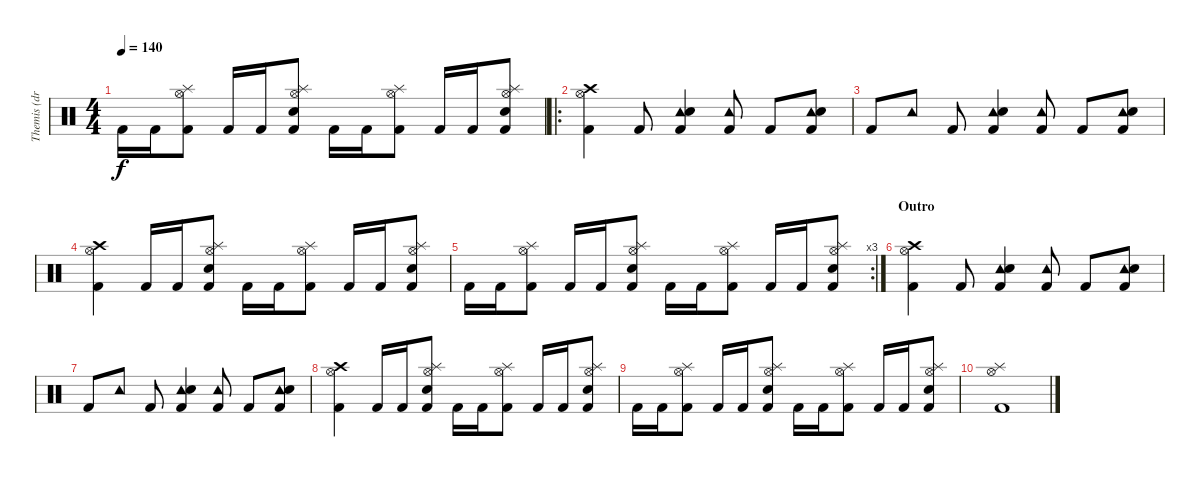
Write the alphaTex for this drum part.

\track ("Themis (drums)" "Themis (dr") {instrument percussion}
\staff {score}
\articulation defaults
\ts (4 4)
\tempo 140
\clef neutral
\ks c "Kick (hit) 2".16{dy f} "Kick (hit) 2".16
("Splash (hit)" "Hi-Hat (open)" "Kick (hit) 2").8 "Kick (hit) 2".16 "Kick (hit) 2".16 ("Splash (hit)" "Hi-Hat (open)" "Electric Snare (hit)" "Kick (hit) 2").8 "Kick (hit) 2".16 "Kick (hit) 2".16 ("Splash (hit)" "Hi-Hat (open)" "Kick (hit) 2").8 "Kick (hit) 2".16 "Kick (hit) 2".16 ("Splash (hit)" "Hi-Hat (open)" "Electric Snare (hit)" "Kick (hit) 2").8 |
\ro
("Crash high (hit)" "Hi-Hat (open)" "Kick (hit) 2").4 "Kick (hit) 2".8 ("Tambourine (hit)" "Electric Snare (hit)" "Kick (hit) 2").4 ("Tambourine (hit)" "Kick (hit) 2").8 "Kick (hit) 2".8 ("Tambourine (hit)" "Electric Snare (hit)" "Kick (hit) 2").8 |
"Kick (hit) 2".8 "Tambourine (hit)".8 "Kick (hit) 2".8 ("Tambourine (hit)" "Electric Snare (hit)" "Kick (hit) 2").4 ("Tambourine (hit)" "Kick (hit) 2").8 "Kick (hit) 2".8 ("Tambourine (hit)" "Electric Snare (hit)" "Kick (hit) 2").8 |
("Crash high (hit)" "Hi-Hat (open)" "Kick (hit) 2").4 "Kick (hit) 2".16 "Kick (hit) 2".16 ("Splash (hit)" "Hi-Hat (open)" "Electric Snare (hit)" "Kick (hit) 2").8 "Kick (hit) 2".16 "Kick (hit) 2".16 ("Splash (hit)" "Hi-Hat (open)" "Kick (hit) 2").8 "Kick (hit) 2".16 "Kick (hit) 2".16 ("Splash (hit)" "Hi-Hat (open)" "Electric Snare (hit)" "Kick (hit) 2").8 |
\rc 3 "Kick (hit) 2".16 "Kick (hit) 2".16
("Splash (hit)" "Hi-Hat (open)" "Kick (hit) 2").8 "Kick (hit) 2".16 "Kick (hit) 2".16 ("Splash (hit)" "Hi-Hat (open)" "Electric Snare (hit)" "Kick (hit) 2").8 "Kick (hit) 2".16 "Kick (hit) 2".16 ("Splash (hit)" "Hi-Hat (open)" "Kick (hit) 2").8 "Kick (hit) 2".16 "Kick (hit) 2".16 ("Splash (hit)" "Hi-Hat (open)" "Electric Snare (hit)" "Kick (hit) 2").8 |
\section ("" "Outro")
("Crash high (hit)" "Hi-Hat (open)" "Kick (hit) 2").4 "Kick (hit) 2".8 ("Tambourine (hit)" "Electric Snare (hit)" "Kick (hit) 2").4 ("Tambourine (hit)" "Kick (hit) 2").8 "Kick (hit) 2".8 ("Tambourine (hit)" "Electric Snare (hit)" "Kick (hit) 2").8 |
"Kick (hit) 2".8 "Tambourine (hit)".8 "Kick (hit) 2".8 ("Tambourine (hit)" "Electric Snare (hit)" "Kick (hit) 2").4 ("Tambourine (hit)" "Kick (hit) 2").8 "Kick (hit) 2".8 ("Tambourine (hit)" "Electric Snare (hit)" "Kick (hit) 2").8 |
("Crash high (hit)" "Hi-Hat (open)" "Kick (hit) 2").4 "Kick (hit) 2".16 "Kick (hit) 2".16 ("Splash (hit)" "Hi-Hat (open)" "Electric Snare (hit)" "Kick (hit) 2").8 "Kick (hit) 2".16 "Kick (hit) 2".16 ("Splash (hit)" "Hi-Hat (open)" "Kick (hit) 2").8 "Kick (hit) 2".16 "Kick (hit) 2".16 ("Splash (hit)" "Hi-Hat (open)" "Electric Snare (hit)" "Kick (hit) 2").8 |
"Kick (hit) 2".16 "Kick (hit) 2".16 ("Splash (hit)" "Hi-Hat (open)" "Kick (hit) 2").8 "Kick (hit) 2".16 "Kick (hit) 2".16 ("Splash (hit)" "Hi-Hat (open)" "Electric Snare (hit)" "Kick (hit) 2").8 "Kick (hit) 2".16 "Kick (hit) 2".16 ("Splash (hit)" "Hi-Hat (open)" "Kick (hit) 2").8 "Kick (hit) 2".16 "Kick (hit) 2".16 ("Splash (hit)" "Hi-Hat (open)" "Electric Snare (hit)" "Kick (hit) 2").8 |
("Hi-Hat (open)" "Splash (hit)" "Kick (hit) 2").1
